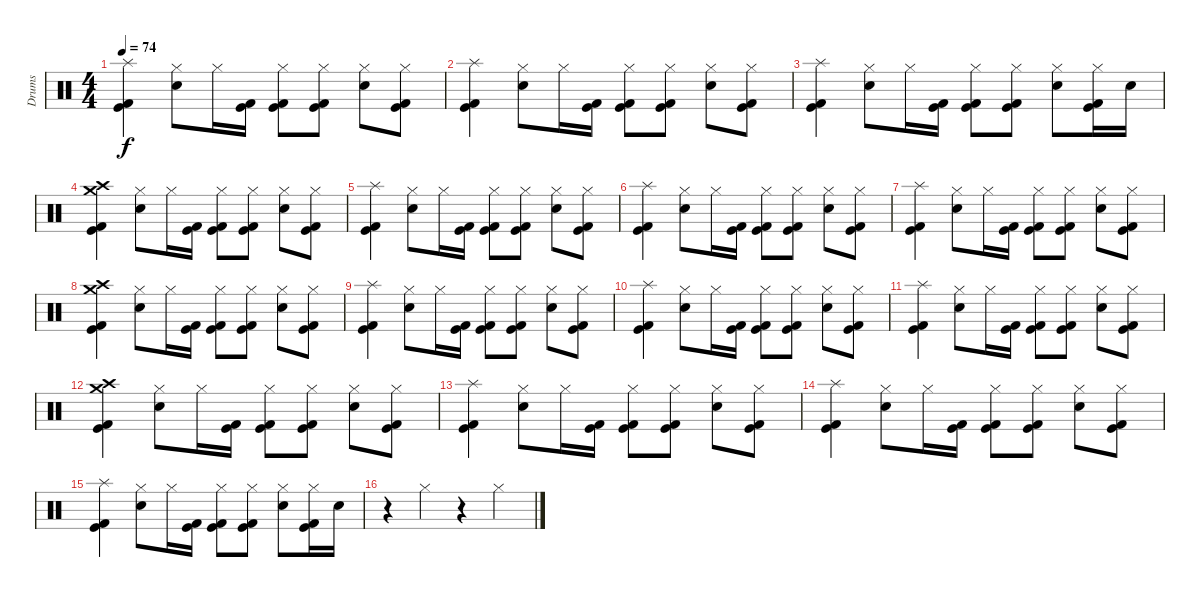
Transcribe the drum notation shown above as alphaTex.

\track ("Drums" "Drums") {instrument percussion}
\staff {score}
\articulation defaults
\ts (4 4)
\tempo 74
\clef neutral
\ks c
("Splash (hit)" "Kick (hit) 2" "Kick (hit)").4{dy f} ("Hi-Hat (closed)" "Electric Snare (hit)").8 "Hi-Hat (closed)".16 ("Kick (hit) 2" "Kick (hit)").16 ("Hi-Hat (closed)" "Kick (hit) 2" "Kick (hit)").8 ("Hi-Hat (closed)" "Kick (hit)" "Kick (hit) 2").8 ("Hi-Hat (closed)" "Electric Snare (hit)").8 ("Hi-Hat (closed)" "Kick (hit) 2" "Kick (hit)").8 |
("Splash (hit)" "Kick (hit) 2" "Kick (hit)").4 ("Hi-Hat (closed)" "Electric Snare (hit)").8 "Hi-Hat (closed)".16 ("Kick (hit) 2" "Kick (hit)").16 ("Hi-Hat (closed)" "Kick (hit) 2" "Kick (hit)").8 ("Hi-Hat (closed)" "Kick (hit)" "Kick (hit) 2").8 ("Hi-Hat (closed)" "Electric Snare (hit)").8 ("Hi-Hat (closed)" "Kick (hit) 2" "Kick (hit)").8 |
("Splash (hit)" "Kick (hit) 2" "Kick (hit)").4 ("Hi-Hat (closed)" "Electric Snare (hit)").8 "Hi-Hat (closed)".16 ("Kick (hit) 2" "Kick (hit)").16 ("Hi-Hat (closed)" "Kick (hit) 2" "Kick (hit)").8 ("Hi-Hat (closed)" "Kick (hit)" "Kick (hit) 2").8 ("Hi-Hat (closed)" "Electric Snare (hit)").8 ("Hi-Hat (closed)" "Kick (hit) 2" "Kick (hit)").16 "Electric Snare (hit)".16 |
("Crash medium (hit)" "Crash high (hit)" "Kick (hit) 2" "Kick (hit)").4 ("Hi-Hat (closed)" "Electric Snare (hit)").8 "Hi-Hat (closed)".16 ("Kick (hit) 2" "Kick (hit)").16 ("Hi-Hat (closed)" "Kick (hit) 2" "Kick (hit)").8 ("Hi-Hat (closed)" "Kick (hit)" "Kick (hit) 2").8 ("Hi-Hat (closed)" "Electric Snare (hit)").8 ("Hi-Hat (closed)" "Kick (hit) 2" "Kick (hit)").8 |
("Splash (hit)" "Kick (hit) 2" "Kick (hit)").4 ("Hi-Hat (closed)" "Electric Snare (hit)").8 "Hi-Hat (closed)".16 ("Kick (hit) 2" "Kick (hit)").16 ("Hi-Hat (closed)" "Kick (hit) 2" "Kick (hit)").8 ("Hi-Hat (closed)" "Kick (hit)" "Kick (hit) 2").8 ("Hi-Hat (closed)" "Electric Snare (hit)").8 ("Hi-Hat (closed)" "Kick (hit) 2" "Kick (hit)").8 |
("Splash (hit)" "Kick (hit) 2" "Kick (hit)").4 ("Hi-Hat (closed)" "Electric Snare (hit)").8 "Hi-Hat (closed)".16 ("Kick (hit) 2" "Kick (hit)").16 ("Hi-Hat (closed)" "Kick (hit) 2" "Kick (hit)").8 ("Hi-Hat (closed)" "Kick (hit)" "Kick (hit) 2").8 ("Hi-Hat (closed)" "Electric Snare (hit)").8 ("Hi-Hat (closed)" "Kick (hit) 2" "Kick (hit)").8 |
("Splash (hit)" "Kick (hit) 2" "Kick (hit)").4 ("Hi-Hat (closed)" "Electric Snare (hit)").8 "Hi-Hat (closed)".16 ("Kick (hit) 2" "Kick (hit)").16 ("Hi-Hat (closed)" "Kick (hit) 2" "Kick (hit)").8 ("Hi-Hat (closed)" "Kick (hit)" "Kick (hit) 2").8 ("Hi-Hat (closed)" "Electric Snare (hit)").8 ("Hi-Hat (closed)" "Kick (hit) 2" "Kick (hit)").8 |
("Crash medium (hit)" "Crash high (hit)" "Kick (hit) 2" "Kick (hit)").4 ("Hi-Hat (closed)" "Electric Snare (hit)").8 "Hi-Hat (closed)".16 ("Kick (hit) 2" "Kick (hit)").16 ("Hi-Hat (closed)" "Kick (hit) 2" "Kick (hit)").8 ("Hi-Hat (closed)" "Kick (hit)" "Kick (hit) 2").8 ("Hi-Hat (closed)" "Electric Snare (hit)").8 ("Hi-Hat (closed)" "Kick (hit) 2" "Kick (hit)").8 |
("Splash (hit)" "Kick (hit) 2" "Kick (hit)").4 ("Hi-Hat (closed)" "Electric Snare (hit)").8 "Hi-Hat (closed)".16 ("Kick (hit) 2" "Kick (hit)").16 ("Hi-Hat (closed)" "Kick (hit) 2" "Kick (hit)").8 ("Hi-Hat (closed)" "Kick (hit)" "Kick (hit) 2").8 ("Hi-Hat (closed)" "Electric Snare (hit)").8 ("Hi-Hat (closed)" "Kick (hit) 2" "Kick (hit)").8 |
("Splash (hit)" "Kick (hit) 2" "Kick (hit)").4 ("Hi-Hat (closed)" "Electric Snare (hit)").8 "Hi-Hat (closed)".16 ("Kick (hit) 2" "Kick (hit)").16 ("Hi-Hat (closed)" "Kick (hit) 2" "Kick (hit)").8 ("Hi-Hat (closed)" "Kick (hit)" "Kick (hit) 2").8 ("Hi-Hat (closed)" "Electric Snare (hit)").8 ("Hi-Hat (closed)" "Kick (hit) 2" "Kick (hit)").8 |
("Splash (hit)" "Kick (hit) 2" "Kick (hit)").4 ("Hi-Hat (closed)" "Electric Snare (hit)").8 "Hi-Hat (closed)".16 ("Kick (hit) 2" "Kick (hit)").16 ("Hi-Hat (closed)" "Kick (hit) 2" "Kick (hit)").8 ("Hi-Hat (closed)" "Kick (hit)" "Kick (hit) 2").8 ("Hi-Hat (closed)" "Electric Snare (hit)").8 ("Hi-Hat (closed)" "Kick (hit) 2" "Kick (hit)").8 |
("Crash medium (hit)" "Crash high (hit)" "Kick (hit) 2" "Kick (hit)").4 ("Hi-Hat (closed)" "Electric Snare (hit)").8 "Hi-Hat (closed)".16 ("Kick (hit) 2" "Kick (hit)").16 ("Hi-Hat (closed)" "Kick (hit) 2" "Kick (hit)").8 ("Hi-Hat (closed)" "Kick (hit)" "Kick (hit) 2").8 ("Hi-Hat (closed)" "Electric Snare (hit)").8 ("Hi-Hat (closed)" "Kick (hit) 2" "Kick (hit)").8 |
("Splash (hit)" "Kick (hit) 2" "Kick (hit)").4 ("Hi-Hat (closed)" "Electric Snare (hit)").8 "Hi-Hat (closed)".16 ("Kick (hit) 2" "Kick (hit)").16 ("Hi-Hat (closed)" "Kick (hit) 2" "Kick (hit)").8 ("Hi-Hat (closed)" "Kick (hit)" "Kick (hit) 2").8 ("Hi-Hat (closed)" "Electric Snare (hit)").8 ("Hi-Hat (closed)" "Kick (hit) 2" "Kick (hit)").8 |
("Splash (hit)" "Kick (hit) 2" "Kick (hit)").4 ("Hi-Hat (closed)" "Electric Snare (hit)").8 "Hi-Hat (closed)".16 ("Kick (hit) 2" "Kick (hit)").16 ("Hi-Hat (closed)" "Kick (hit) 2" "Kick (hit)").8 ("Hi-Hat (closed)" "Kick (hit)" "Kick (hit) 2").8 ("Hi-Hat (closed)" "Electric Snare (hit)").8 ("Hi-Hat (closed)" "Kick (hit) 2" "Kick (hit)").8 |
("Splash (hit)" "Kick (hit) 2" "Kick (hit)").4 ("Hi-Hat (closed)" "Electric Snare (hit)").8 "Hi-Hat (closed)".16 ("Kick (hit) 2" "Kick (hit)").16 ("Hi-Hat (closed)" "Kick (hit) 2" "Kick (hit)").8 ("Hi-Hat (closed)" "Kick (hit)" "Kick (hit) 2").8 ("Hi-Hat (closed)" "Electric Snare (hit)").8 ("Hi-Hat (closed)" "Kick (hit) 2" "Kick (hit)").16 "Electric Snare (hit)".16 |
r.4 "Hi-Hat (closed)".4 r.4 "Hi-Hat (closed)".4
